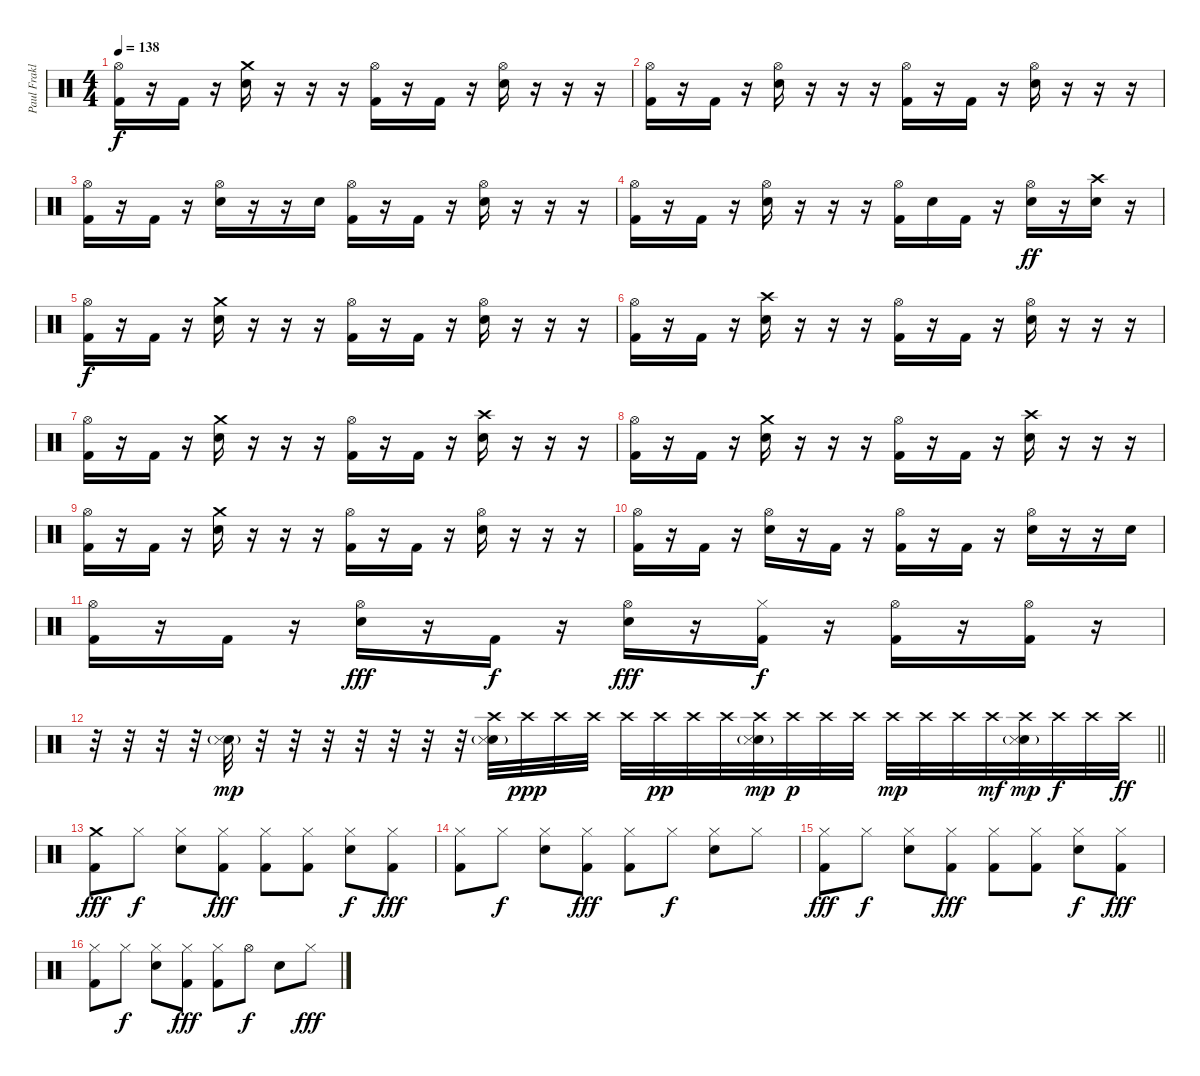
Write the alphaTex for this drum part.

\track ("Paul Fraklin Percusion" "Paul Frakl") {instrument percussion}
\staff {score}
\articulation defaults
\ts (4 4)
\tempo 138
\clef neutral
\ks c
("Hi-Hat (open)" "Kick (hit) 2").16{dy f} r.16 "Kick (hit) 2".16 r.16 ("Crash medium (hit)" "Electric Snare (hit)").16 r.16 r.16 r.16 ("Hi-Hat (open)" "Kick (hit) 2").16 r.16 "Kick (hit) 2".16 r.16 ("Hi-Hat (open)" "Electric Snare (hit)").16 r.16 r.16 r.16 |
("Hi-Hat (open)" "Kick (hit) 2").16 r.16 "Kick (hit) 2".16 r.16 ("Hi-Hat (open)" "Electric Snare (hit)").16 r.16 r.16 r.16 ("Hi-Hat (open)" "Kick (hit) 2").16 r.16 "Kick (hit) 2".16 r.16 ("Hi-Hat (open)" "Electric Snare (hit)").16 r.16 r.16 r.16 |
("Hi-Hat (open)" "Kick (hit) 2").16 r.16 "Kick (hit) 2".16 r.16 ("Hi-Hat (open)" "Electric Snare (hit)").16 r.16 r.16 "Electric Snare (hit)".16 ("Hi-Hat (open)" "Kick (hit) 2").16 r.16 "Kick (hit) 2".16 r.16 ("Hi-Hat (open)" "Electric Snare (hit)").16 r.16 r.16 r.16 |
("Hi-Hat (open)" "Kick (hit) 2").16 r.16 "Kick (hit) 2".16 r.16 ("Hi-Hat (open)" "Electric Snare (hit)").16 r.16 r.16 r.16 ("Hi-Hat (open)" "Kick (hit) 2").16 "Electric Snare (hit)".16 "Kick (hit) 2".16 r.16 ("Hi-Hat (open)" "Electric Snare (hit)").16{dy ff} r.16 ("Crash high (hit)" "Electric Snare (hit)").16 r.16 |
("Hi-Hat (open)" "Kick (hit) 2").16{dy f} r.16 "Kick (hit) 2".16 r.16 ("Crash medium (hit)" "Electric Snare (hit)").16 r.16 r.16 r.16 ("Hi-Hat (open)" "Kick (hit) 2").16 r.16 "Kick (hit) 2".16 r.16 ("Hi-Hat (open)" "Electric Snare (hit)").16 r.16 r.16 r.16 |
("Hi-Hat (open)" "Kick (hit) 2").16 r.16 "Kick (hit) 2".16 r.16 ("Crash high (hit)" "Electric Snare (hit)").16 r.16 r.16 r.16 ("Hi-Hat (open)" "Kick (hit) 2").16 r.16 "Kick (hit) 2".16 r.16 ("Hi-Hat (open)" "Electric Snare (hit)").16 r.16 r.16 r.16 |
("Hi-Hat (open)" "Kick (hit) 2").16 r.16 "Kick (hit) 2".16 r.16 ("Crash medium (hit)" "Electric Snare (hit)").16 r.16 r.16 r.16 ("Hi-Hat (open)" "Kick (hit) 2").16 r.16 "Kick (hit) 2".16 r.16 ("Crash high (hit)" "Electric Snare (hit)").16 r.16 r.16 r.16 |
("Hi-Hat (open)" "Kick (hit) 2").16 r.16 "Kick (hit) 2".16 r.16 ("Crash medium (hit)" "Electric Snare (hit)").16 r.16 r.16 r.16 ("Hi-Hat (open)" "Kick (hit) 2").16 r.16 "Kick (hit) 2".16 r.16 ("Crash high (hit)" "Electric Snare (hit)").16 r.16 r.16 r.16 |
("Hi-Hat (open)" "Kick (hit) 2").16 r.16 "Kick (hit) 2".16 r.16 ("Crash medium (hit)" "Electric Snare (hit)").16 r.16 r.16 r.16 ("Hi-Hat (open)" "Kick (hit) 2").16 r.16 "Kick (hit) 2".16 r.16 ("Hi-Hat (open)" "Electric Snare (hit)").16 r.16 r.16 r.16 |
("Hi-Hat (open)" "Kick (hit) 2").16 r.16 "Kick (hit) 2".16 r.16 ("Hi-Hat (open)" "Electric Snare (hit)").16 r.16 "Kick (hit) 2".16 r.16 ("Hi-Hat (open)" "Kick (hit) 2").16 r.16 "Kick (hit) 2".16 r.16 ("Hi-Hat (open)" "Electric Snare (hit)").16 r.16 r.16 "Electric Snare (hit)".16 |
("Hi-Hat (open)" "Kick (hit) 2").16 r.16 "Kick (hit) 2".16 r.16 ("Hi-Hat (open)" "Electric Snare (hit)").16{dy fff} r.16 "Kick (hit) 2".16{dy f} r.16 ("Hi-Hat (open)" "Electric Snare (hit)").16{dy fff} r.16 ("Hi-Hat (closed)" "Kick (hit) 2").16{dy f} r.16 ("Hi-Hat (open)" "Kick (hit) 2").16 r.16 ("Hi-Hat (open)" "Kick (hit) 2").16 r.16 |
\barLineRight lightlight
r.32 r.32 r.32 r.32 ("Electric Snare (hit)"{g} "Snare (side stick) 3").32{dy mp} r.32 r.32 r.32 r.32 r.32 r.32 r.32 ("Crash high (hit)" "Electric Snare (hit)"{g} "Snare (side stick) 3").32 "Crash high (hit)".32{dy ppp} "Crash high (hit)".32 "Crash high (hit)".32 "Crash high (hit)".32 "Crash high (hit)".32{dy pp} "Crash high (hit)".32 "Crash high (hit)".32 ("Crash high (hit)" "Electric Snare (hit)"{g} "Snare (side stick) 3").32{dy mp} "Crash high (hit)".32{dy p} "Crash high (hit)".32 "Crash high (hit)".32 "Crash high (hit)".32{dy mp} "Crash high (hit)".32 "Crash high (hit)".32 "Crash high (hit)".32{dy mf} ("Crash high (hit)" "Electric Snare (hit)"{g} "Snare (side stick) 3").32{dy mp} "Crash high (hit)".32{dy f} "Crash high (hit)".32 "Crash high (hit)".32{dy ff} |
("Crash medium (hit)" "Kick (hit) 2").8{dy fff} "Hi-Hat (closed)".8{dy f} ("Hi-Hat (closed)" "Electric Snare (hit)").8 ("Hi-Hat (closed)" "Kick (hit) 2").8{dy fff} ("Hi-Hat (closed)" "Kick (hit) 2").8 ("Hi-Hat (closed)" "Kick (hit) 2").8 ("Hi-Hat (closed)" "Electric Snare (hit)").8{dy f} ("Hi-Hat (closed)" "Kick (hit) 2").8{dy fff} |
("Hi-Hat (closed)" "Kick (hit) 2").8 "Hi-Hat (closed)".8{dy f} ("Hi-Hat (closed)" "Electric Snare (hit)").8 ("Hi-Hat (closed)" "Kick (hit) 2").8{dy fff} ("Hi-Hat (closed)" "Kick (hit) 2").8 "Hi-Hat (closed)".8{dy f} ("Hi-Hat (closed)" "Electric Snare (hit)").8 "Hi-Hat (closed)".8 |
("Hi-Hat (closed)" "Kick (hit) 2").8{dy fff} "Hi-Hat (closed)".8{dy f} ("Hi-Hat (closed)" "Electric Snare (hit)").8 ("Hi-Hat (closed)" "Kick (hit) 2").8{dy fff} ("Hi-Hat (closed)" "Kick (hit) 2").8 ("Hi-Hat (closed)" "Kick (hit) 2").8 ("Hi-Hat (closed)" "Electric Snare (hit)").8{dy f} ("Hi-Hat (closed)" "Kick (hit) 2").8{dy fff} |
("Hi-Hat (closed)" "Kick (hit) 2").8 "Hi-Hat (closed)".8{dy f} ("Hi-Hat (closed)" "Electric Snare (hit)").8 ("Hi-Hat (closed)" "Kick (hit) 2").8{dy fff} ("Hi-Hat (closed)" "Kick (hit) 2").8 "Hi-Hat (open)".8{dy f} "Electric Snare (hit)".8 "Hi-Hat (closed)".8{dy fff}
